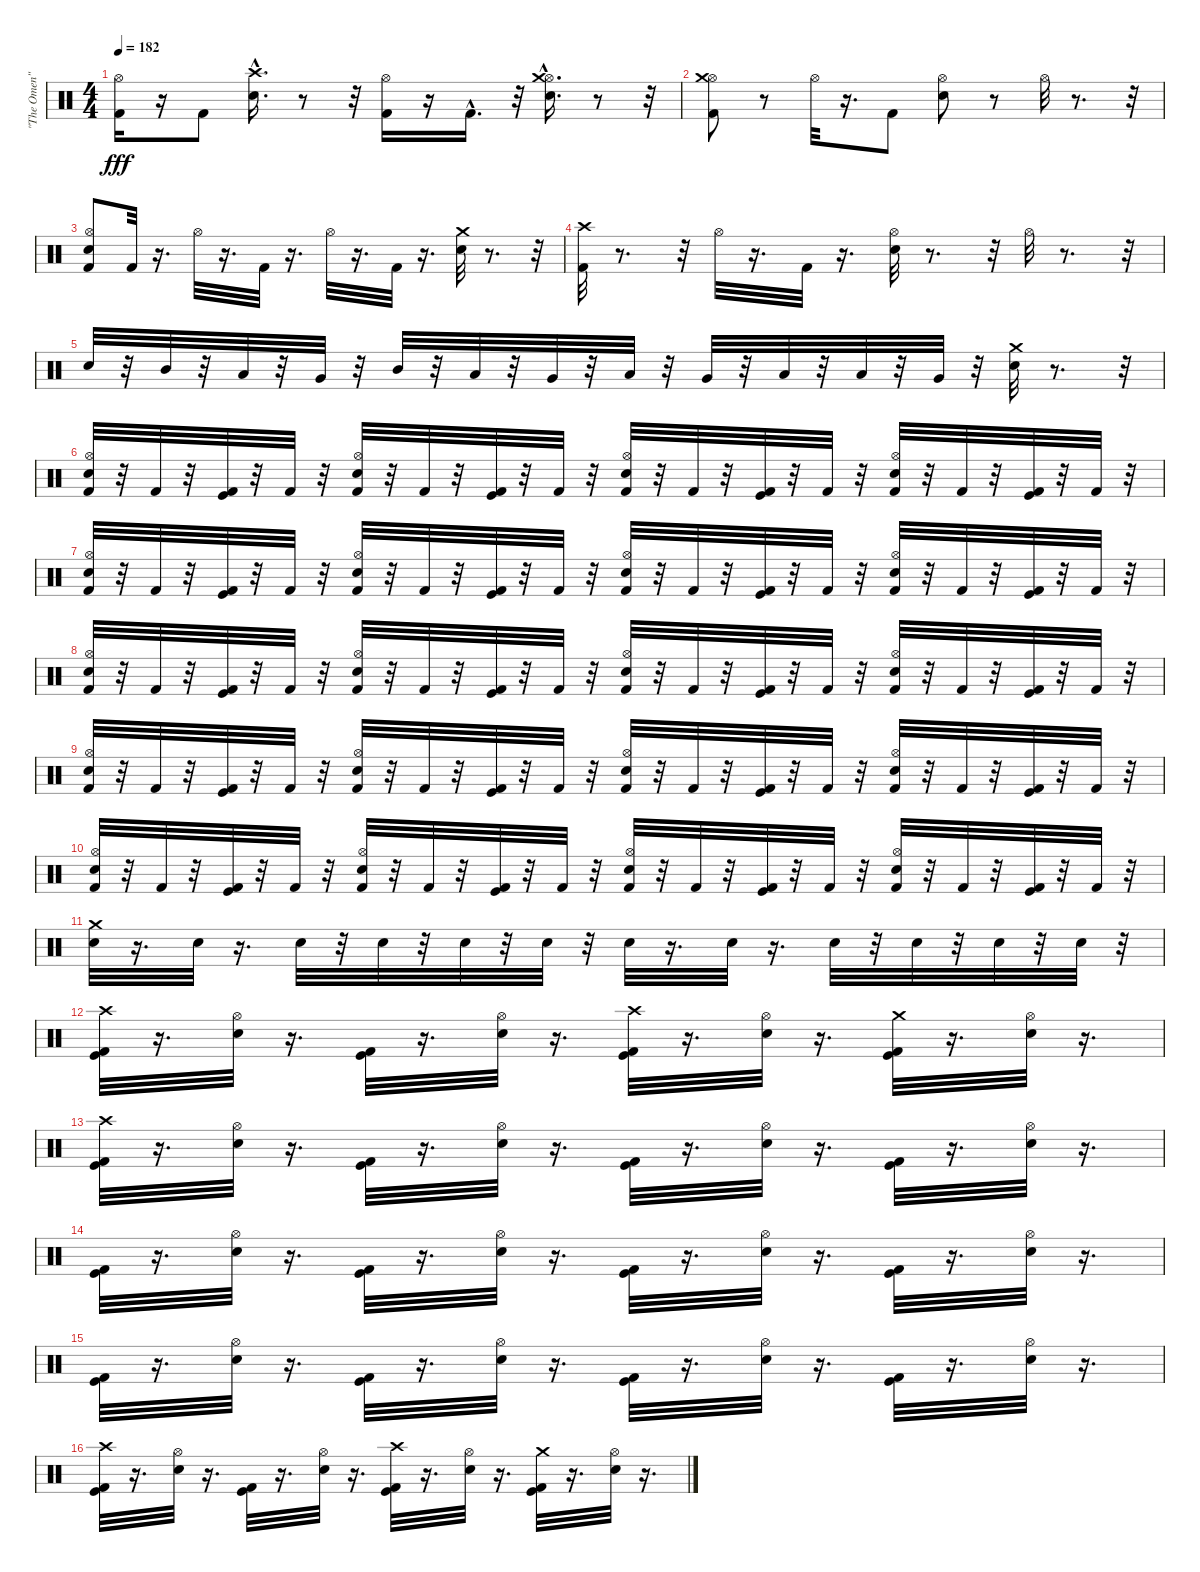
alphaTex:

\track ("\"The Omen\"" "\"The Omen\"") {instrument percussion}
\staff {score}
\articulation defaults
\ts (4 4)
\tempo 182
\clef neutral
\ks c
("Kick (hit) 2" "Hi-Hat (open)").16{dy fff} r.16 "Kick (hit) 2".8 ("Snare (hit) 2"{hac} "Crash high (hit)").16{d} r.8 r.32 ("Kick (hit) 2" "Hi-Hat (open)").16 r.16 "Kick (hit) 2"{hac}.16{d} r.32 ("Snare (hit) 2"{hac} "Hi-Hat (open)" "Crash medium (hit)").16{d} r.8 r.32 |
("Kick (hit) 2" "Hi-Hat (open)" "Crash medium (hit)").8 r.8 "Hi-Hat (open)".32 r.16{d} "Kick (hit) 2".8 ("Snare (hit) 2" "Hi-Hat (open)").8 r.8 "Hi-Hat (open)".32 r.8{d} r.32 |
("Snare (hit)" "Kick (hit) 2" "Hi-Hat (open)").8 "Kick (hit) 2".32 r.16{d} "Hi-Hat (open)".32 r.16{d} "Kick (hit) 2".32 r.16{d} "Hi-Hat (open)".32 r.16{d} "Kick (hit) 2".32 r.16{d} ("Snare (hit) 2" "Crash medium (hit)").32 r.8{d} r.32 |
("Kick (hit) 2" "Crash high (hit)").32 r.8{d} r.32 "Hi-Hat (open)".32 r.16{d} "Kick (hit) 2".32 r.16{d} ("Snare (hit) 2" "Hi-Hat (open)").32 r.8{d} r.32 "Hi-Hat (open)".32 r.8{d} r.32 |
"Snare (hit) 2".32 r.32 "Mid Tom (hit)".32 r.32 "Low Tom (hit)".32 r.32 "Very Low Tom (hit)".32 r.32 "Mid Tom (hit)".32 r.32 "Low Tom (hit)".32 r.32 "Very Low Tom (hit)".32 r.32 "Low Tom (hit)".32 r.32 "Very Low Tom (hit)".32 r.32 "Low Floor Tom (hit)".32 r.32 "Low Tom (hit)".32 r.32 "Very Low Tom (hit)".32 r.32 ("Snare (hit) 2" "Crash medium (hit)").32 r.8{d} r.32 |
("Kick (hit) 2" "Snare (hit) 2" "Hi-Hat (open)").32 r.32 "Kick (hit) 2".32 r.32 ("Kick (hit)" "Kick (hit) 2").32 r.32 "Kick (hit) 2".32 r.32 ("Kick (hit) 2" "Snare (hit) 2" "Hi-Hat (open)").32 r.32 "Kick (hit) 2".32 r.32 ("Kick (hit)" "Kick (hit) 2").32 r.32 "Kick (hit) 2".32 r.32 ("Kick (hit) 2" "Snare (hit) 2" "Hi-Hat (open)").32 r.32 "Kick (hit) 2".32 r.32 ("Kick (hit)" "Kick (hit) 2").32 r.32 "Kick (hit) 2".32 r.32 ("Kick (hit) 2" "Snare (hit) 2" "Hi-Hat (open)").32 r.32 "Kick (hit) 2".32 r.32 ("Kick (hit)" "Kick (hit) 2").32 r.32 "Kick (hit) 2".32 r.32 |
("Kick (hit) 2" "Snare (hit) 2" "Hi-Hat (open)").32 r.32 "Kick (hit) 2".32 r.32 ("Kick (hit)" "Kick (hit) 2").32 r.32 "Kick (hit) 2".32 r.32 ("Kick (hit) 2" "Snare (hit) 2" "Hi-Hat (open)").32 r.32 "Kick (hit) 2".32 r.32 ("Kick (hit)" "Kick (hit) 2").32 r.32 "Kick (hit) 2".32 r.32 ("Kick (hit) 2" "Snare (hit) 2" "Hi-Hat (open)").32 r.32 "Kick (hit) 2".32 r.32 ("Kick (hit)" "Kick (hit) 2").32 r.32 "Kick (hit) 2".32 r.32 ("Kick (hit) 2" "Snare (hit) 2" "Hi-Hat (open)").32 r.32 "Kick (hit) 2".32 r.32 ("Kick (hit)" "Kick (hit) 2").32 r.32 "Kick (hit) 2".32 r.32 |
("Kick (hit) 2" "Snare (hit) 2" "Hi-Hat (open)").32 r.32 "Kick (hit) 2".32 r.32 ("Kick (hit)" "Kick (hit) 2").32 r.32 "Kick (hit) 2".32 r.32 ("Kick (hit) 2" "Snare (hit) 2" "Hi-Hat (open)").32 r.32 "Kick (hit) 2".32 r.32 ("Kick (hit)" "Kick (hit) 2").32 r.32 "Kick (hit) 2".32 r.32 ("Kick (hit) 2" "Snare (hit) 2" "Hi-Hat (open)").32 r.32 "Kick (hit) 2".32 r.32 ("Kick (hit)" "Kick (hit) 2").32 r.32 "Kick (hit) 2".32 r.32 ("Kick (hit) 2" "Snare (hit) 2" "Hi-Hat (open)").32 r.32 "Kick (hit) 2".32 r.32 ("Kick (hit)" "Kick (hit) 2").32 r.32 "Kick (hit) 2".32 r.32 |
("Kick (hit) 2" "Snare (hit) 2" "Hi-Hat (open)").32 r.32 "Kick (hit) 2".32 r.32 ("Kick (hit)" "Kick (hit) 2").32 r.32 "Kick (hit) 2".32 r.32 ("Kick (hit) 2" "Snare (hit) 2" "Hi-Hat (open)").32 r.32 "Kick (hit) 2".32 r.32 ("Kick (hit)" "Kick (hit) 2").32 r.32 "Kick (hit) 2".32 r.32 ("Kick (hit) 2" "Snare (hit) 2" "Hi-Hat (open)").32 r.32 "Kick (hit) 2".32 r.32 ("Kick (hit)" "Kick (hit) 2").32 r.32 "Kick (hit) 2".32 r.32 ("Kick (hit) 2" "Snare (hit) 2" "Hi-Hat (open)").32 r.32 "Kick (hit) 2".32 r.32 ("Kick (hit)" "Kick (hit) 2").32 r.32 "Kick (hit) 2".32 r.32 |
("Kick (hit) 2" "Snare (hit) 2" "Hi-Hat (open)").32 r.32 "Kick (hit) 2".32 r.32 ("Kick (hit)" "Kick (hit) 2").32 r.32 "Kick (hit) 2".32 r.32 ("Kick (hit) 2" "Snare (hit) 2" "Hi-Hat (open)").32 r.32 "Kick (hit) 2".32 r.32 ("Kick (hit)" "Kick (hit) 2").32 r.32 "Kick (hit) 2".32 r.32 ("Kick (hit) 2" "Snare (hit) 2" "Hi-Hat (open)").32 r.32 "Kick (hit) 2".32 r.32 ("Kick (hit)" "Kick (hit) 2").32 r.32 "Kick (hit) 2".32 r.32 ("Kick (hit) 2" "Snare (hit) 2" "Hi-Hat (open)").32 r.32 "Kick (hit) 2".32 r.32 ("Kick (hit)" "Kick (hit) 2").32 r.32 "Kick (hit) 2".32 r.32 |
("Snare (hit) 2" "Crash medium (hit)").32 r.16{d} "Snare (hit) 2".32 r.16{d} "Snare (hit) 2".32 r.32 "Snare (hit) 2".32 r.32 "Snare (hit) 2".32 r.32 "Snare (hit) 2".32 r.32 "Snare (hit) 2".32 r.16{d} "Snare (hit) 2".32 r.16{d} "Snare (hit) 2".32 r.32 "Snare (hit) 2".32 r.32 "Snare (hit) 2".32 r.32 "Snare (hit) 2".32 r.32 |
("Kick (hit)" "Kick (hit) 2" "Crash high (hit)").32 r.16{d} ("Snare (hit) 2" "Hi-Hat (open)").32 r.16{d} ("Kick (hit)" "Kick (hit) 2").32 r.16{d} ("Snare (hit) 2" "Hi-Hat (open)").32 r.16{d} ("Kick (hit)" "Kick (hit) 2" "Crash high (hit)").32 r.16{d} ("Snare (hit) 2" "Hi-Hat (open)").32 r.16{d} ("Kick (hit)" "Kick (hit) 2" "Crash medium (hit)").32 r.16{d} ("Snare (hit) 2" "Hi-Hat (open)").32 r.16{d} |
("Kick (hit)" "Kick (hit) 2" "Crash high (hit)").32 r.16{d} ("Snare (hit) 2" "Hi-Hat (open)").32 r.16{d} ("Kick (hit)" "Kick (hit) 2").32 r.16{d} ("Snare (hit) 2" "Hi-Hat (open)").32 r.16{d} ("Kick (hit)" "Kick (hit) 2").32 r.16{d} ("Snare (hit) 2" "Hi-Hat (open)").32 r.16{d} ("Kick (hit)" "Kick (hit) 2").32 r.16{d} ("Snare (hit) 2" "Hi-Hat (open)").32 r.16{d} |
("Kick (hit)" "Kick (hit) 2").32 r.16{d} ("Snare (hit) 2" "Hi-Hat (open)").32 r.16{d} ("Kick (hit)" "Kick (hit) 2").32 r.16{d} ("Snare (hit) 2" "Hi-Hat (open)").32 r.16{d} ("Kick (hit)" "Kick (hit) 2").32 r.16{d} ("Snare (hit) 2" "Hi-Hat (open)").32 r.16{d} ("Kick (hit)" "Kick (hit) 2").32 r.16{d} ("Snare (hit) 2" "Hi-Hat (open)").32 r.16{d} |
("Kick (hit)" "Kick (hit) 2").32 r.16{d} ("Snare (hit) 2" "Hi-Hat (open)").32 r.16{d} ("Kick (hit)" "Kick (hit) 2").32 r.16{d} ("Snare (hit) 2" "Hi-Hat (open)").32 r.16{d} ("Kick (hit)" "Kick (hit) 2").32 r.16{d} ("Snare (hit) 2" "Hi-Hat (open)").32 r.16{d} ("Kick (hit)" "Kick (hit) 2").32 r.16{d} ("Snare (hit) 2" "Hi-Hat (open)").32 r.16{d} |
("Kick (hit)" "Kick (hit) 2" "Crash high (hit)").32 r.16{d} ("Snare (hit) 2" "Hi-Hat (open)").32 r.16{d} ("Kick (hit)" "Kick (hit) 2").32 r.16{d} ("Snare (hit) 2" "Hi-Hat (open)").32 r.16{d} ("Kick (hit)" "Kick (hit) 2" "Crash high (hit)").32 r.16{d} ("Snare (hit) 2" "Hi-Hat (open)").32 r.16{d} ("Kick (hit)" "Kick (hit) 2" "Crash medium (hit)").32 r.16{d} ("Snare (hit) 2" "Hi-Hat (open)").32 r.16{d}
